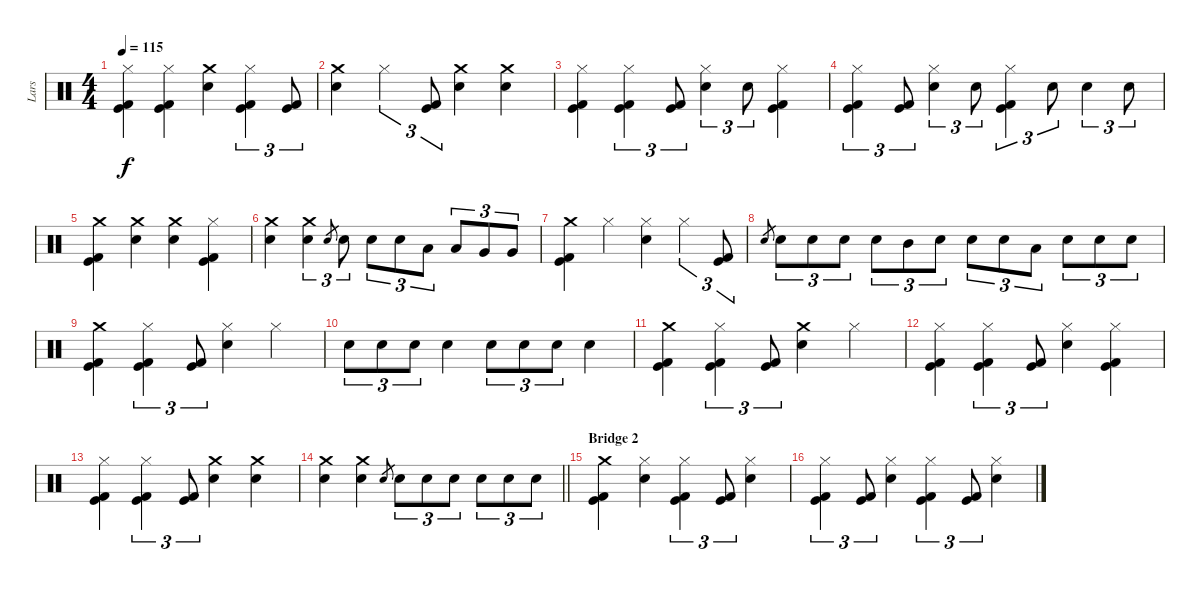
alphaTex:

\track ("Lars" "Lars") {instrument percussion}
\staff {score}
\articulation defaults
\ts (4 4)
\tempo 115
\clef neutral
\ks c
("Hi-Hat (closed)" "Kick (hit)" "Kick (hit) 2").4{dy f} ("Hi-Hat (closed)" "Kick (hit)" "Kick (hit) 2").4 ("Crash medium (hit)" "Electric Snare (hit)").4 ("Hi-Hat (closed)" "Kick (hit)" "Kick (hit) 2").4{tu (3 2)} ("Kick (hit)" "Kick (hit) 2").8{tu (3 2)} |
("Crash medium (hit)" "Electric Snare (hit)").4 "Hi-Hat (closed)".4{tu (3 2)} ("Kick (hit)" "Kick (hit) 2").8{tu (3 2)} ("Crash medium (hit)" "Electric Snare (hit)").4 ("Crash medium (hit)" "Electric Snare (hit)").4 |
("Hi-Hat (closed)" "Kick (hit)" "Kick (hit) 2").4 ("Hi-Hat (closed)" "Kick (hit)" "Kick (hit) 2").4{tu (3 2)} ("Kick (hit)" "Kick (hit) 2").8{tu (3 2)} ("Hi-Hat (closed)" "Electric Snare (hit)").4{tu (3 2)} "Electric Snare (hit)".8{tu (3 2)} ("Hi-Hat (closed)" "Kick (hit)" "Kick (hit) 2").4 |
("Hi-Hat (closed)" "Kick (hit)" "Kick (hit) 2").4{tu (3 2)} ("Kick (hit)" "Kick (hit) 2").8{tu (3 2)} ("Hi-Hat (closed)" "Electric Snare (hit)").4{tu (3 2)} "Electric Snare (hit)".8{tu (3 2)} ("Hi-Hat (closed)" "Kick (hit)" "Kick (hit) 2").4{tu (3 2)} "Electric Snare (hit)".8{tu (3 2)} "Electric Snare (hit)".4{tu (3 2)} "Electric Snare (hit)".8{tu (3 2)} |
("Crash medium (hit)" "Kick (hit)" "Kick (hit) 2").4 ("Crash medium (hit)" "Electric Snare (hit)").4 ("Crash medium (hit)" "Electric Snare (hit)").4 ("Hi-Hat (closed)" "Kick (hit)" "Kick (hit) 2").4 |
("Crash medium (hit)" "Electric Snare (hit)").4 ("Crash medium (hit)" "Electric Snare (hit)").4{tu (3 2)} "Electric Snare (hit)".8{gr} "Electric Snare (hit)".8{tu (3 2)} "Electric Snare (hit)".8{tu (3 2)} "Electric Snare (hit)".8{tu (3 2)} "Low Tom (hit)".8{tu (3 2)} "Low Tom (hit)".8{tu (3 2)} "Very Low Tom (hit)".8{tu (3 2)} "Very Low Tom (hit)".8{tu (3 2)} |
("Crash medium (hit)" "Kick (hit)" "Kick (hit) 2").4 "Hi-Hat (closed)".4 ("Hi-Hat (closed)" "Electric Snare (hit)").4 "Hi-Hat (closed)".4{tu (3 2)} ("Kick (hit)" "Kick (hit) 2").8{tu (3 2)} |
"Electric Snare (hit)".8{gr} "Electric Snare (hit)".8{tu (3 2)} "Electric Snare (hit)".8{tu (3 2)} "Electric Snare (hit)".8{tu (3 2)} "Electric Snare (hit)".8{tu (3 2)} "Mid Tom (hit)".8{tu (3 2)} "Electric Snare (hit)".8{tu (3 2)} "Electric Snare (hit)".8{tu (3 2)} "Electric Snare (hit)".8{tu (3 2)} "Low Tom (hit)".8{tu (3 2)} "Electric Snare (hit)".8{tu (3 2)} "Electric Snare (hit)".8{tu (3 2)} "Electric Snare (hit)".8{tu (3 2)} |
("Crash medium (hit)" "Kick (hit)" "Kick (hit) 2").4 ("Hi-Hat (closed)" "Kick (hit)" "Kick (hit) 2").4{tu (3 2)} ("Kick (hit)" "Kick (hit) 2").8{tu (3 2)} ("Hi-Hat (closed)" "Electric Snare (hit)").4 "Hi-Hat (closed)".4 |
"Electric Snare (hit)".8{tu (3 2)} "Electric Snare (hit)".8{tu (3 2)} "Electric Snare (hit)".8{tu (3 2)} "Electric Snare (hit)".4 "Electric Snare (hit)".8{tu (3 2)} "Electric Snare (hit)".8{tu (3 2)} "Electric Snare (hit)".8{tu (3 2)} "Electric Snare (hit)".4 |
("Crash medium (hit)" "Kick (hit)" "Kick (hit) 2").4 ("Hi-Hat (closed)" "Kick (hit)" "Kick (hit) 2").4{tu (3 2)} ("Kick (hit)" "Kick (hit) 2").8{tu (3 2)} ("Crash medium (hit)" "Electric Snare (hit)").4 "Hi-Hat (closed)".4 |
("Hi-Hat (closed)" "Kick (hit)" "Kick (hit) 2").4 ("Hi-Hat (closed)" "Kick (hit)" "Kick (hit) 2").4{tu (3 2)} ("Kick (hit)" "Kick (hit) 2").8{tu (3 2)} ("Hi-Hat (closed)" "Electric Snare (hit)").4 ("Hi-Hat (closed)" "Kick (hit)" "Kick (hit) 2").4 |
("Hi-Hat (closed)" "Kick (hit)" "Kick (hit) 2").4 ("Hi-Hat (closed)" "Kick (hit)" "Kick (hit) 2").4{tu (3 2)} ("Kick (hit)" "Kick (hit) 2").8{tu (3 2)} ("Crash medium (hit)" "Electric Snare (hit)").4 ("Crash medium (hit)" "Electric Snare (hit)").4 |
\barLineRight lightlight
("Crash medium (hit)" "Electric Snare (hit)").4 ("Crash medium (hit)" "Electric Snare (hit)").4 "Electric Snare (hit)".8{gr} "Electric Snare (hit)".8{tu (3 2)} "Electric Snare (hit)".8{tu (3 2)} "Electric Snare (hit)".8{tu (3 2)} "Electric Snare (hit)".8{tu (3 2)} "Electric Snare (hit)".8{tu (3 2)} "Electric Snare (hit)".8{tu (3 2)} |
\section ("" "Bridge 2")
("Crash medium (hit)" "Kick (hit)" "Kick (hit) 2").4 ("Hi-Hat (closed)" "Electric Snare (hit)").4 ("Hi-Hat (closed)" "Kick (hit)" "Kick (hit) 2").4{tu (3 2)} ("Kick (hit)" "Kick (hit) 2").8{tu (3 2)} ("Hi-Hat (closed)" "Electric Snare (hit)").4 |
("Hi-Hat (closed)" "Kick (hit)" "Kick (hit) 2").4{tu (3 2)} ("Kick (hit)" "Kick (hit) 2").8{tu (3 2)} ("Hi-Hat (closed)" "Electric Snare (hit)").4 ("Hi-Hat (closed)" "Kick (hit)" "Kick (hit) 2").4{tu (3 2)} ("Kick (hit)" "Kick (hit) 2").8{tu (3 2)} ("Hi-Hat (closed)" "Electric Snare (hit)").4
